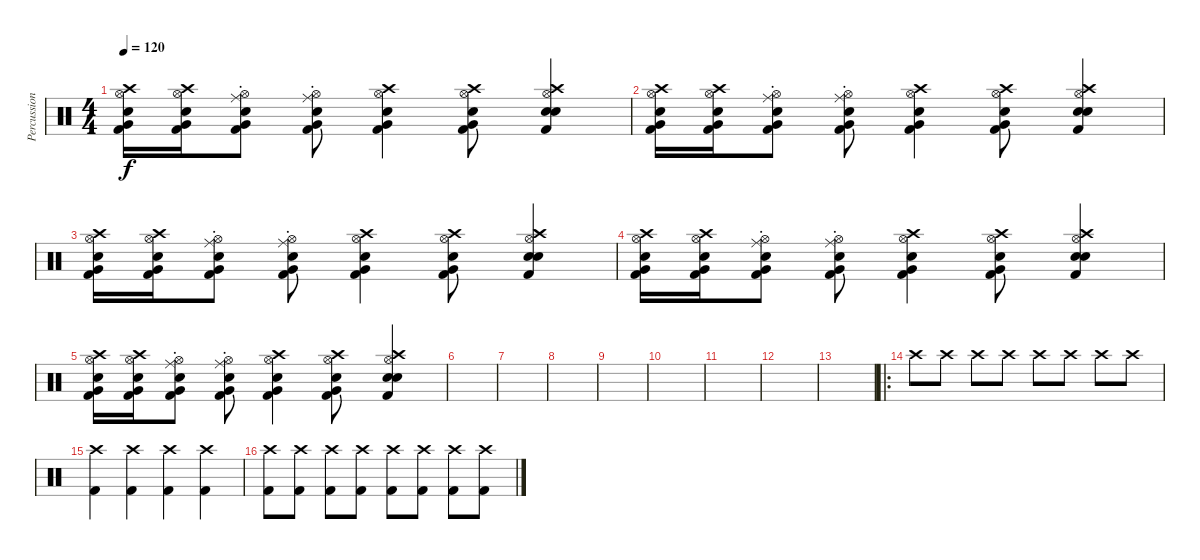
\track ("Percussion" "Percussion") {instrument percussion}
\staff {score}
\articulation defaults
\ts (4 4)
\tempo 120
\clef neutral
\ks c
("Kick (hit) 2" "Very Low Tom (hit)" "Snare (hit) 2" "Hi-Hat (open)" "Crash high (hit)").16{dy f} ("Very Low Tom (hit)" "Kick (hit) 2" "Snare (hit) 2" "Hi-Hat (open)" "Crash high (hit)").16 ("Very Low Tom (hit)" "Kick (hit) 2" "Snare (hit) 2" "Hi-Hat (open)" "Ride (choke)").8 ("Very Low Tom (hit)" "Kick (hit) 2" "Snare (hit) 2" "Hi-Hat (open)" "Ride (choke)").8 ("Very Low Tom (hit)" "Kick (hit) 2" "Snare (hit) 2" "Hi-Hat (open)" "Crash high (hit)").4 ("Very Low Tom (hit)" "Kick (hit) 2" "Snare (hit) 2" "Hi-Hat (open)" "Crash high (hit)").8 ("Metronome (bell)" "Kick (hit) 2" "Snare (hit) 2" "Hi-Hat (open)" "Crash high (hit)").4 |
("Kick (hit) 2" "Very Low Tom (hit)" "Snare (hit) 2" "Hi-Hat (open)" "Crash high (hit)").16 ("Very Low Tom (hit)" "Kick (hit) 2" "Snare (hit) 2" "Hi-Hat (open)" "Crash high (hit)").16 ("Very Low Tom (hit)" "Kick (hit) 2" "Snare (hit) 2" "Hi-Hat (open)" "Ride (choke)").8 ("Very Low Tom (hit)" "Kick (hit) 2" "Snare (hit) 2" "Hi-Hat (open)" "Ride (choke)").8 ("Very Low Tom (hit)" "Kick (hit) 2" "Snare (hit) 2" "Hi-Hat (open)" "Crash high (hit)").4 ("Very Low Tom (hit)" "Kick (hit) 2" "Snare (hit) 2" "Hi-Hat (open)" "Crash high (hit)").8 ("Metronome (bell)" "Kick (hit) 2" "Snare (hit) 2" "Hi-Hat (open)" "Crash high (hit)").4 |
("Kick (hit) 2" "Very Low Tom (hit)" "Snare (hit) 2" "Hi-Hat (open)" "Crash high (hit)").16 ("Very Low Tom (hit)" "Kick (hit) 2" "Snare (hit) 2" "Hi-Hat (open)" "Crash high (hit)").16 ("Very Low Tom (hit)" "Kick (hit) 2" "Snare (hit) 2" "Hi-Hat (open)" "Ride (choke)").8 ("Very Low Tom (hit)" "Kick (hit) 2" "Snare (hit) 2" "Hi-Hat (open)" "Ride (choke)").8 ("Very Low Tom (hit)" "Kick (hit) 2" "Snare (hit) 2" "Hi-Hat (open)" "Crash high (hit)").4 ("Very Low Tom (hit)" "Kick (hit) 2" "Snare (hit) 2" "Hi-Hat (open)" "Crash high (hit)").8 ("Metronome (bell)" "Kick (hit) 2" "Snare (hit) 2" "Hi-Hat (open)" "Crash high (hit)").4 |
("Kick (hit) 2" "Very Low Tom (hit)" "Snare (hit) 2" "Hi-Hat (open)" "Crash high (hit)").16 ("Very Low Tom (hit)" "Kick (hit) 2" "Snare (hit) 2" "Hi-Hat (open)" "Crash high (hit)").16 ("Very Low Tom (hit)" "Kick (hit) 2" "Snare (hit) 2" "Hi-Hat (open)" "Ride (choke)").8 ("Very Low Tom (hit)" "Kick (hit) 2" "Snare (hit) 2" "Hi-Hat (open)" "Ride (choke)").8 ("Very Low Tom (hit)" "Kick (hit) 2" "Snare (hit) 2" "Hi-Hat (open)" "Crash high (hit)").4 ("Very Low Tom (hit)" "Kick (hit) 2" "Snare (hit) 2" "Hi-Hat (open)" "Crash high (hit)").8 ("Metronome (bell)" "Kick (hit) 2" "Snare (hit) 2" "Hi-Hat (open)" "Crash high (hit)").4 |
("Kick (hit) 2" "Very Low Tom (hit)" "Snare (hit) 2" "Hi-Hat (open)" "Crash high (hit)").16 ("Very Low Tom (hit)" "Kick (hit) 2" "Snare (hit) 2" "Hi-Hat (open)" "Crash high (hit)").16 ("Very Low Tom (hit)" "Kick (hit) 2" "Snare (hit) 2" "Hi-Hat (open)" "Ride (choke)").8 ("Very Low Tom (hit)" "Kick (hit) 2" "Snare (hit) 2" "Hi-Hat (open)" "Ride (choke)").8 ("Very Low Tom (hit)" "Kick (hit) 2" "Snare (hit) 2" "Hi-Hat (open)" "Crash high (hit)").4 ("Very Low Tom (hit)" "Kick (hit) 2" "Snare (hit) 2" "Hi-Hat (open)" "Crash high (hit)").8 ("Metronome (bell)" "Kick (hit) 2" "Snare (hit) 2" "Hi-Hat (open)" "Crash high (hit)").4 |
|
|
|
|
|
|
|
|
\ro "Crash high (hit)".8 "Crash high (hit)".8 "Crash high (hit)".8 "Crash high (hit)".8 "Crash high (hit)".8 "Crash high (hit)".8 "Crash high (hit)".8 "Crash high (hit)".8
|
("Crash high (hit)" "Kick (hit) 2").4 ("Crash high (hit)" "Kick (hit) 2").4 ("Crash high (hit)" "Kick (hit) 2").4 ("Crash high (hit)" "Kick (hit) 2").4 |
("Crash high (hit)" "Kick (hit) 2").8 ("Crash high (hit)" "Kick (hit) 2").8 ("Crash high (hit)" "Kick (hit) 2").8 ("Crash high (hit)" "Kick (hit) 2").8 ("Crash high (hit)" "Kick (hit) 2").8 ("Crash high (hit)" "Kick (hit) 2").8 ("Crash high (hit)" "Kick (hit) 2").8 ("Crash high (hit)" "Kick (hit) 2").8
